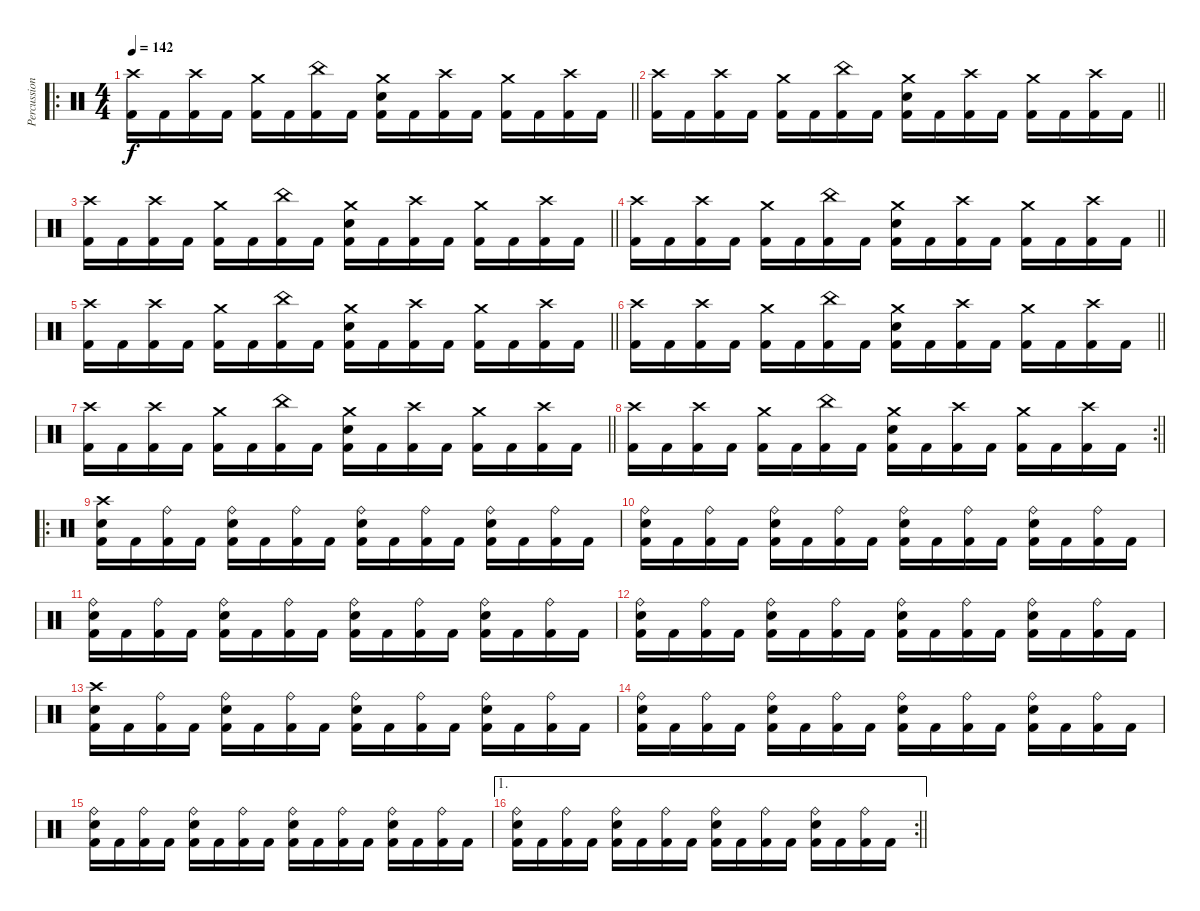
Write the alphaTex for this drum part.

\track ("Percussions" "Percussion") {instrument percussion}
\staff {score}
\articulation defaults
\ro
\ts (4 4)
\section ("" "")
\tempo 142
\clef neutral
\barLineRight lightlight
\ks c
("Crash high (hit)" "Kick (hit) 2").16{dy f} "Kick (hit) 2".16 ("Crash high (hit)" "Kick (hit) 2").16 "Kick (hit) 2".16 ("Crash medium (hit)" "Kick (hit) 2").16 "Kick (hit) 2".16 ("China (hit)" "Kick (hit) 2").16 "Kick (hit) 2".16 ("Crash medium (hit)" "Electric Snare (hit)" "Kick (hit) 2").16 "Kick (hit) 2".16 ("Crash high (hit)" "Kick (hit) 2").16 "Kick (hit) 2".16 ("Crash medium (hit)" "Kick (hit) 2").16 "Kick (hit) 2".16 ("Crash high (hit)" "Kick (hit) 2").16 "Kick (hit) 2".16 |
\barLineRight lightlight
("Crash high (hit)" "Kick (hit) 2").16 "Kick (hit) 2".16 ("Crash high (hit)" "Kick (hit) 2").16 "Kick (hit) 2".16 ("Crash medium (hit)" "Kick (hit) 2").16 "Kick (hit) 2".16 ("China (hit)" "Kick (hit) 2").16 "Kick (hit) 2".16 ("Crash medium (hit)" "Electric Snare (hit)" "Kick (hit) 2").16 "Kick (hit) 2".16 ("Crash high (hit)" "Kick (hit) 2").16 "Kick (hit) 2".16 ("Crash medium (hit)" "Kick (hit) 2").16 "Kick (hit) 2".16 ("Crash high (hit)" "Kick (hit) 2").16 "Kick (hit) 2".16 |
\barLineRight lightlight
("Crash high (hit)" "Kick (hit) 2").16 "Kick (hit) 2".16 ("Crash high (hit)" "Kick (hit) 2").16 "Kick (hit) 2".16 ("Crash medium (hit)" "Kick (hit) 2").16 "Kick (hit) 2".16 ("China (hit)" "Kick (hit) 2").16 "Kick (hit) 2".16 ("Crash medium (hit)" "Electric Snare (hit)" "Kick (hit) 2").16 "Kick (hit) 2".16 ("Crash high (hit)" "Kick (hit) 2").16 "Kick (hit) 2".16 ("Crash medium (hit)" "Kick (hit) 2").16 "Kick (hit) 2".16 ("Crash high (hit)" "Kick (hit) 2").16 "Kick (hit) 2".16 |
\barLineRight lightlight
("Crash high (hit)" "Kick (hit) 2").16 "Kick (hit) 2".16 ("Crash high (hit)" "Kick (hit) 2").16 "Kick (hit) 2".16 ("Crash medium (hit)" "Kick (hit) 2").16 "Kick (hit) 2".16 ("China (hit)" "Kick (hit) 2").16 "Kick (hit) 2".16 ("Crash medium (hit)" "Electric Snare (hit)" "Kick (hit) 2").16 "Kick (hit) 2".16 ("Crash high (hit)" "Kick (hit) 2").16 "Kick (hit) 2".16 ("Crash medium (hit)" "Kick (hit) 2").16 "Kick (hit) 2".16 ("Crash high (hit)" "Kick (hit) 2").16 "Kick (hit) 2".16 |
\barLineRight lightlight
("Crash high (hit)" "Kick (hit) 2").16 "Kick (hit) 2".16 ("Crash high (hit)" "Kick (hit) 2").16 "Kick (hit) 2".16 ("Crash medium (hit)" "Kick (hit) 2").16 "Kick (hit) 2".16 ("China (hit)" "Kick (hit) 2").16 "Kick (hit) 2".16 ("Crash medium (hit)" "Electric Snare (hit)" "Kick (hit) 2").16 "Kick (hit) 2".16 ("Crash high (hit)" "Kick (hit) 2").16 "Kick (hit) 2".16 ("Crash medium (hit)" "Kick (hit) 2").16 "Kick (hit) 2".16 ("Crash high (hit)" "Kick (hit) 2").16 "Kick (hit) 2".16 |
\barLineRight lightlight
("Crash high (hit)" "Kick (hit) 2").16 "Kick (hit) 2".16 ("Crash high (hit)" "Kick (hit) 2").16 "Kick (hit) 2".16 ("Crash medium (hit)" "Kick (hit) 2").16 "Kick (hit) 2".16 ("China (hit)" "Kick (hit) 2").16 "Kick (hit) 2".16 ("Crash medium (hit)" "Electric Snare (hit)" "Kick (hit) 2").16 "Kick (hit) 2".16 ("Crash high (hit)" "Kick (hit) 2").16 "Kick (hit) 2".16 ("Crash medium (hit)" "Kick (hit) 2").16 "Kick (hit) 2".16 ("Crash high (hit)" "Kick (hit) 2").16 "Kick (hit) 2".16 |
\barLineRight lightlight
("Crash high (hit)" "Kick (hit) 2").16 "Kick (hit) 2".16 ("Crash high (hit)" "Kick (hit) 2").16 "Kick (hit) 2".16 ("Crash medium (hit)" "Kick (hit) 2").16 "Kick (hit) 2".16 ("China (hit)" "Kick (hit) 2").16 "Kick (hit) 2".16 ("Crash medium (hit)" "Electric Snare (hit)" "Kick (hit) 2").16 "Kick (hit) 2".16 ("Crash high (hit)" "Kick (hit) 2").16 "Kick (hit) 2".16 ("Crash medium (hit)" "Kick (hit) 2").16 "Kick (hit) 2".16 ("Crash high (hit)" "Kick (hit) 2").16 "Kick (hit) 2".16 |
\rc 2
\barLineRight lightlight
("Crash high (hit)" "Kick (hit) 2").16 "Kick (hit) 2".16 ("Crash high (hit)" "Kick (hit) 2").16 "Kick (hit) 2".16 ("Crash medium (hit)" "Kick (hit) 2").16 "Kick (hit) 2".16 ("China (hit)" "Kick (hit) 2").16 "Kick (hit) 2".16 ("Crash medium (hit)" "Electric Snare (hit)" "Kick (hit) 2").16 "Kick (hit) 2".16 ("Crash high (hit)" "Kick (hit) 2").16 "Kick (hit) 2".16 ("Crash medium (hit)" "Kick (hit) 2").16 "Kick (hit) 2".16 ("Crash high (hit)" "Kick (hit) 2").16 "Kick (hit) 2".16 |
\ro
("Crash high (hit)" "Electric Snare (hit)" "Kick (hit) 2").16 "Kick (hit) 2".16 ("Ride (bell)" "Kick (hit) 2").16 "Kick (hit) 2".16 ("Ride (bell)" "Electric Snare (hit)" "Kick (hit) 2").16 "Kick (hit) 2".16 ("Ride (bell)" "Kick (hit) 2").16 "Kick (hit) 2".16 ("Ride (bell)" "Electric Snare (hit)" "Kick (hit) 2").16 "Kick (hit) 2".16 ("Ride (bell)" "Kick (hit) 2").16 "Kick (hit) 2".16 ("Ride (bell)" "Electric Snare (hit)" "Kick (hit) 2").16 "Kick (hit) 2".16 ("Ride (bell)" "Kick (hit) 2").16 "Kick (hit) 2".16 |
("Ride (bell)" "Electric Snare (hit)" "Kick (hit) 2").16 "Kick (hit) 2".16 ("Ride (bell)" "Kick (hit) 2").16 "Kick (hit) 2".16 ("Ride (bell)" "Electric Snare (hit)" "Kick (hit) 2").16 "Kick (hit) 2".16 ("Ride (bell)" "Kick (hit) 2").16 "Kick (hit) 2".16 ("Ride (bell)" "Electric Snare (hit)" "Kick (hit) 2").16 "Kick (hit) 2".16 ("Ride (bell)" "Kick (hit) 2").16 "Kick (hit) 2".16 ("Ride (bell)" "Electric Snare (hit)" "Kick (hit) 2").16 "Kick (hit) 2".16 ("Ride (bell)" "Kick (hit) 2").16 "Kick (hit) 2".16 |
("Ride (bell)" "Electric Snare (hit)" "Kick (hit) 2").16 "Kick (hit) 2".16 ("Ride (bell)" "Kick (hit) 2").16 "Kick (hit) 2".16 ("Ride (bell)" "Electric Snare (hit)" "Kick (hit) 2").16 "Kick (hit) 2".16 ("Ride (bell)" "Kick (hit) 2").16 "Kick (hit) 2".16 ("Ride (bell)" "Electric Snare (hit)" "Kick (hit) 2").16 "Kick (hit) 2".16 ("Ride (bell)" "Kick (hit) 2").16 "Kick (hit) 2".16 ("Ride (bell)" "Electric Snare (hit)" "Kick (hit) 2").16 "Kick (hit) 2".16 ("Ride (bell)" "Kick (hit) 2").16 "Kick (hit) 2".16 |
("Ride (bell)" "Electric Snare (hit)" "Kick (hit) 2").16 "Kick (hit) 2".16 ("Ride (bell)" "Kick (hit) 2").16 "Kick (hit) 2".16 ("Ride (bell)" "Electric Snare (hit)" "Kick (hit) 2").16 "Kick (hit) 2".16 ("Ride (bell)" "Kick (hit) 2").16 "Kick (hit) 2".16 ("Ride (bell)" "Electric Snare (hit)" "Kick (hit) 2").16 "Kick (hit) 2".16 ("Ride (bell)" "Kick (hit) 2").16 "Kick (hit) 2".16 ("Ride (bell)" "Electric Snare (hit)" "Kick (hit) 2").16 "Kick (hit) 2".16 ("Ride (bell)" "Kick (hit) 2").16 "Kick (hit) 2".16 |
("Crash high (hit)" "Electric Snare (hit)" "Kick (hit) 2").16 "Kick (hit) 2".16 ("Ride (bell)" "Kick (hit) 2").16 "Kick (hit) 2".16 ("Ride (bell)" "Electric Snare (hit)" "Kick (hit) 2").16 "Kick (hit) 2".16 ("Ride (bell)" "Kick (hit) 2").16 "Kick (hit) 2".16 ("Ride (bell)" "Electric Snare (hit)" "Kick (hit) 2").16 "Kick (hit) 2".16 ("Ride (bell)" "Kick (hit) 2").16 "Kick (hit) 2".16 ("Ride (bell)" "Electric Snare (hit)" "Kick (hit) 2").16 "Kick (hit) 2".16 ("Ride (bell)" "Kick (hit) 2").16 "Kick (hit) 2".16 |
("Ride (bell)" "Electric Snare (hit)" "Kick (hit) 2").16 "Kick (hit) 2".16 ("Ride (bell)" "Kick (hit) 2").16 "Kick (hit) 2".16 ("Ride (bell)" "Electric Snare (hit)" "Kick (hit) 2").16 "Kick (hit) 2".16 ("Ride (bell)" "Kick (hit) 2").16 "Kick (hit) 2".16 ("Ride (bell)" "Electric Snare (hit)" "Kick (hit) 2").16 "Kick (hit) 2".16 ("Ride (bell)" "Kick (hit) 2").16 "Kick (hit) 2".16 ("Ride (bell)" "Electric Snare (hit)" "Kick (hit) 2").16 "Kick (hit) 2".16 ("Ride (bell)" "Kick (hit) 2").16 "Kick (hit) 2".16 |
("Ride (bell)" "Electric Snare (hit)" "Kick (hit) 2").16 "Kick (hit) 2".16 ("Ride (bell)" "Kick (hit) 2").16 "Kick (hit) 2".16 ("Ride (bell)" "Electric Snare (hit)" "Kick (hit) 2").16 "Kick (hit) 2".16 ("Ride (bell)" "Kick (hit) 2").16 "Kick (hit) 2".16 ("Ride (bell)" "Electric Snare (hit)" "Kick (hit) 2").16 "Kick (hit) 2".16 ("Ride (bell)" "Kick (hit) 2").16 "Kick (hit) 2".16 ("Ride (bell)" "Electric Snare (hit)" "Kick (hit) 2").16 "Kick (hit) 2".16 ("Ride (bell)" "Kick (hit) 2").16 "Kick (hit) 2".16 |
\ae 1
\rc 2
\barLineRight lightlight
("Ride (bell)" "Electric Snare (hit)" "Kick (hit) 2").16 "Kick (hit) 2".16 ("Ride (bell)" "Kick (hit) 2").16 "Kick (hit) 2".16 ("Ride (bell)" "Electric Snare (hit)" "Kick (hit) 2").16 "Kick (hit) 2".16 ("Ride (bell)" "Kick (hit) 2").16 "Kick (hit) 2".16 ("Ride (bell)" "Electric Snare (hit)" "Kick (hit) 2").16 "Kick (hit) 2".16 ("Ride (bell)" "Kick (hit) 2").16 "Kick (hit) 2".16 ("Ride (bell)" "Electric Snare (hit)" "Kick (hit) 2").16 "Kick (hit) 2".16 ("Ride (bell)" "Kick (hit) 2").16 "Kick (hit) 2".16
